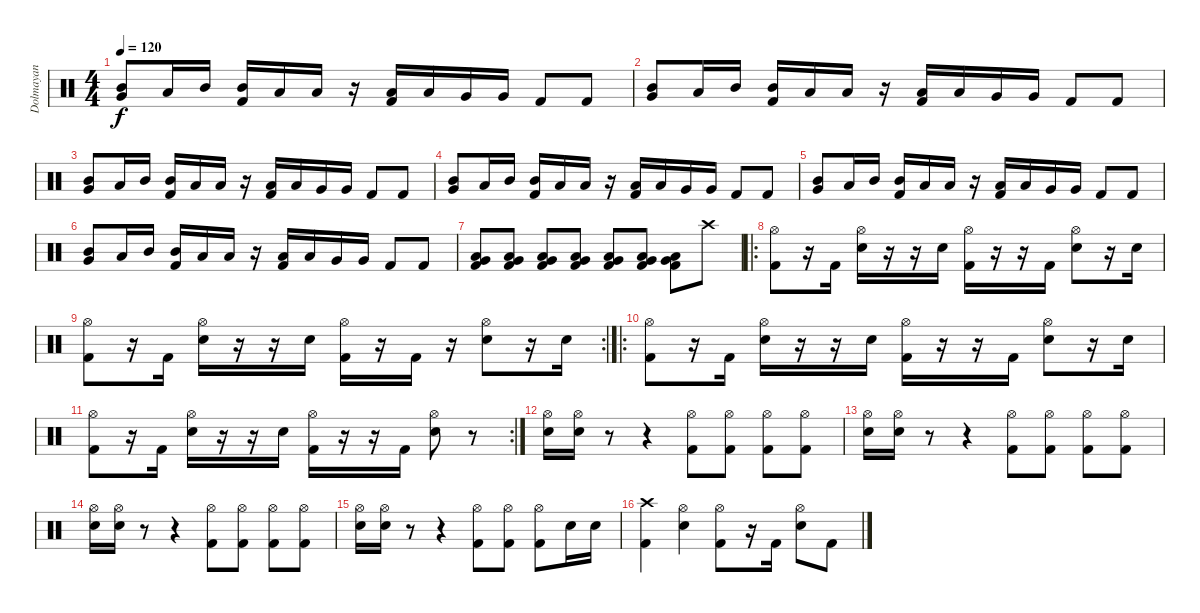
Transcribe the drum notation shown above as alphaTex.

\track ("Dolmayan" "Dolmayan") {instrument percussion}
\staff {score}
\articulation defaults
\ts (4 4)
\tempo 120
\clef neutral
\ks c
("Mid Tom (hit)" "Very Low Tom (hit)").8{dy f} "Low Tom (hit)".16 "Mid Tom (hit)".16 ("Mid Tom (hit)" "Kick (hit) 2").16 "Low Tom (hit)".16 "Low Tom (hit)".16 r.16 ("Low Tom (hit)" "Kick (hit) 2").16 "Low Tom (hit)".16 "Very Low Tom (hit)".16 "Very Low Tom (hit)".16 "Kick (hit) 2".8 "Kick (hit) 2".8 |
("Mid Tom (hit)" "Very Low Tom (hit)").8 "Low Tom (hit)".16 "Mid Tom (hit)".16 ("Mid Tom (hit)" "Kick (hit) 2").16 "Low Tom (hit)".16 "Low Tom (hit)".16 r.16 ("Low Tom (hit)" "Kick (hit) 2").16 "Low Tom (hit)".16 "Very Low Tom (hit)".16 "Very Low Tom (hit)".16 "Kick (hit) 2".8 "Kick (hit) 2".8 |
("Mid Tom (hit)" "Very Low Tom (hit)").8 "Low Tom (hit)".16 "Mid Tom (hit)".16 ("Mid Tom (hit)" "Kick (hit) 2").16 "Low Tom (hit)".16 "Low Tom (hit)".16 r.16 ("Low Tom (hit)" "Kick (hit) 2").16 "Low Tom (hit)".16 "Very Low Tom (hit)".16 "Very Low Tom (hit)".16 "Kick (hit) 2".8 "Kick (hit) 2".8 |
("Mid Tom (hit)" "Very Low Tom (hit)").8 "Low Tom (hit)".16 "Mid Tom (hit)".16 ("Mid Tom (hit)" "Kick (hit) 2").16 "Low Tom (hit)".16 "Low Tom (hit)".16 r.16 ("Low Tom (hit)" "Kick (hit) 2").16 "Low Tom (hit)".16 "Very Low Tom (hit)".16 "Very Low Tom (hit)".16 "Kick (hit) 2".8 "Kick (hit) 2".8 |
("Mid Tom (hit)" "Very Low Tom (hit)").8 "Low Tom (hit)".16 "Mid Tom (hit)".16 ("Mid Tom (hit)" "Kick (hit) 2").16 "Low Tom (hit)".16 "Low Tom (hit)".16 r.16 ("Low Tom (hit)" "Kick (hit) 2").16 "Low Tom (hit)".16 "Very Low Tom (hit)".16 "Very Low Tom (hit)".16 "Kick (hit) 2".8 "Kick (hit) 2".8 |
("Mid Tom (hit)" "Very Low Tom (hit)").8 "Low Tom (hit)".16 "Mid Tom (hit)".16 ("Mid Tom (hit)" "Kick (hit) 2").16 "Low Tom (hit)".16 "Low Tom (hit)".16 r.16 ("Low Tom (hit)" "Kick (hit) 2").16 "Low Tom (hit)".16 "Very Low Tom (hit)".16 "Very Low Tom (hit)".16 "Kick (hit) 2".8 "Kick (hit) 2".8 |
("Very Low Tom (hit)" "Low Tom (hit)" "Kick (hit) 2").8 ("Very Low Tom (hit)" "Low Tom (hit)" "Kick (hit) 2").8 ("Very Low Tom (hit)" "Low Tom (hit)" "Kick (hit) 2").8 ("Very Low Tom (hit)" "Low Tom (hit)" "Kick (hit) 2").8 ("Very Low Tom (hit)" "Low Tom (hit)" "Kick (hit) 2").8 ("Very Low Tom (hit)" "Low Tom (hit)" "Kick (hit) 2").8 ("Very Low Tom (hit)" "Low Tom (hit)" "Kick (hit) 2").8 "Crash high (hit)".8 |
\ro
("Hi-Hat (open)" "Kick (hit) 2").8 r.16 "Kick (hit) 2".16 ("Hi-Hat (open)" "Snare (hit) 2").16 r.16 r.16 "Snare (hit) 2".16 ("Hi-Hat (open)" "Kick (hit) 2").16 r.16 r.16 "Kick (hit) 2".16 ("Hi-Hat (open)" "Snare (hit) 2").8 r.16 "Snare (hit) 2".16 |
\rc 2
("Hi-Hat (open)" "Kick (hit) 2").8 r.16 "Kick (hit) 2".16 ("Hi-Hat (open)" "Snare (hit) 2").16 r.16 r.16 "Snare (hit) 2".16 ("Hi-Hat (open)" "Kick (hit) 2").16 r.16 "Kick (hit) 2".16 r.16 ("Hi-Hat (open)" "Snare (hit) 2").8 r.16 "Snare (hit) 2".16 |
\ro
("Hi-Hat (open)" "Kick (hit) 2").8 r.16 "Kick (hit) 2".16 ("Hi-Hat (open)" "Snare (hit) 2").16 r.16 r.16 "Snare (hit) 2".16 ("Hi-Hat (open)" "Kick (hit) 2").16 r.16 r.16 "Kick (hit) 2".16 ("Hi-Hat (open)" "Snare (hit) 2").8 r.16 "Snare (hit) 2".16 |
\rc 2
("Hi-Hat (open)" "Kick (hit) 2").8 r.16 "Kick (hit) 2".16 ("Hi-Hat (open)" "Snare (hit) 2").16 r.16 r.16 "Snare (hit) 2".16 ("Hi-Hat (open)" "Kick (hit) 2").16 r.16 r.16 "Kick (hit) 2".16 ("Hi-Hat (open)" "Snare (hit) 2").8 r.8 |
("Hi-Hat (open)" "Snare (hit) 2").16 ("Hi-Hat (open)" "Snare (hit) 2").16 r.8 r.4 ("Hi-Hat (open)" "Kick (hit) 2").8 ("Hi-Hat (open)" "Kick (hit) 2").8 ("Hi-Hat (open)" "Kick (hit) 2").8 ("Hi-Hat (open)" "Kick (hit) 2").8 |
("Hi-Hat (open)" "Snare (hit) 2").16 ("Hi-Hat (open)" "Snare (hit) 2").16 r.8 r.4 ("Hi-Hat (open)" "Kick (hit) 2").8 ("Hi-Hat (open)" "Kick (hit) 2").8 ("Hi-Hat (open)" "Kick (hit) 2").8 ("Hi-Hat (open)" "Kick (hit) 2").8 |
("Hi-Hat (open)" "Snare (hit) 2").16 ("Hi-Hat (open)" "Snare (hit) 2").16 r.8 r.4 ("Hi-Hat (open)" "Kick (hit) 2").8 ("Hi-Hat (open)" "Kick (hit) 2").8 ("Hi-Hat (open)" "Kick (hit) 2").8 ("Hi-Hat (open)" "Kick (hit) 2").8 |
("Hi-Hat (open)" "Snare (hit) 2").16 ("Hi-Hat (open)" "Snare (hit) 2").16 r.8 r.4 ("Hi-Hat (open)" "Kick (hit) 2").8 ("Hi-Hat (open)" "Kick (hit) 2").8 ("Hi-Hat (open)" "Kick (hit) 2").8 "Snare (hit) 2".16 "Snare (hit) 2".16 |
("Crash high (hit)" "Kick (hit) 2").4 ("Hi-Hat (open)" "Snare (hit) 2").4 ("Hi-Hat (open)" "Kick (hit) 2").8 r.16 "Kick (hit) 2".16 ("Hi-Hat (open)" "Snare (hit) 2").8 "Kick (hit) 2".8
